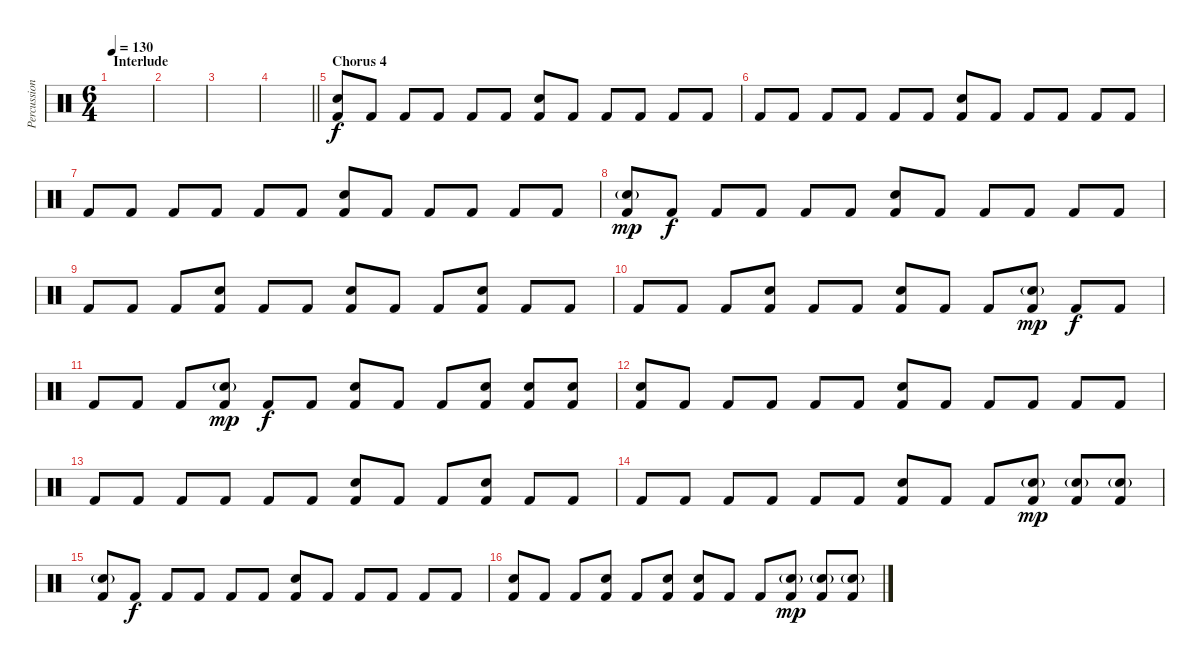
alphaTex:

\track ("Percussion" "Percussion") {instrument percussion}
\staff {score}
\articulation defaults
\ts (6 4)
\section ("" "Interlude")
\tempo 130
\clef neutral
\ks c
|
|
|
\barLineRight lightlight
|
\section ("" "Chorus 4")
("Electric Snare (hit)" "Kick (hit) 2").8{dy f volume 11} "Kick (hit) 2".8 "Kick (hit) 2".8 "Kick (hit) 2".8 "Kick (hit) 2".8 "Kick (hit) 2".8 ("Electric Snare (hit)" "Kick (hit) 2").8 "Kick (hit) 2".8 "Kick (hit) 2".8 "Kick (hit) 2".8 "Kick (hit) 2".8 "Kick (hit) 2".8 |
"Kick (hit) 2".8 "Kick (hit) 2".8 "Kick (hit) 2".8 "Kick (hit) 2".8 "Kick (hit) 2".8 "Kick (hit) 2".8 ("Electric Snare (hit)" "Kick (hit) 2").8 "Kick (hit) 2".8 "Kick (hit) 2".8 "Kick (hit) 2".8 "Kick (hit) 2".8 "Kick (hit) 2".8 |
"Kick (hit) 2".8 "Kick (hit) 2".8 "Kick (hit) 2".8 "Kick (hit) 2".8 "Kick (hit) 2".8 "Kick (hit) 2".8 ("Electric Snare (hit)" "Kick (hit) 2").8 "Kick (hit) 2".8 "Kick (hit) 2".8 "Kick (hit) 2".8 "Kick (hit) 2".8 "Kick (hit) 2".8 |
("Electric Snare (hit)"{g} "Kick (hit) 2").8{dy mp} "Kick (hit) 2".8{dy f} "Kick (hit) 2".8 "Kick (hit) 2".8 "Kick (hit) 2".8 "Kick (hit) 2".8 ("Electric Snare (hit)" "Kick (hit) 2").8 "Kick (hit) 2".8 "Kick (hit) 2".8 "Kick (hit) 2".8 "Kick (hit) 2".8 "Kick (hit) 2".8 |
"Kick (hit) 2".8 "Kick (hit) 2".8 "Kick (hit) 2".8 ("Electric Snare (hit)" "Kick (hit) 2").8 "Kick (hit) 2".8 "Kick (hit) 2".8 ("Electric Snare (hit)" "Kick (hit) 2").8 "Kick (hit) 2".8 "Kick (hit) 2".8 ("Electric Snare (hit)" "Kick (hit) 2").8 "Kick (hit) 2".8 "Kick (hit) 2".8 |
"Kick (hit) 2".8 "Kick (hit) 2".8 "Kick (hit) 2".8 ("Electric Snare (hit)" "Kick (hit) 2").8 "Kick (hit) 2".8 "Kick (hit) 2".8 ("Electric Snare (hit)" "Kick (hit) 2").8 "Kick (hit) 2".8 "Kick (hit) 2".8 ("Electric Snare (hit)"{g} "Kick (hit) 2").8{dy mp} "Kick (hit) 2".8{dy f} "Kick (hit) 2".8 |
"Kick (hit) 2".8 "Kick (hit) 2".8 "Kick (hit) 2".8 ("Electric Snare (hit)"{g} "Kick (hit) 2").8{dy mp} "Kick (hit) 2".8{dy f} "Kick (hit) 2".8 ("Electric Snare (hit)" "Kick (hit) 2").8 "Kick (hit) 2".8 "Kick (hit) 2".8 ("Electric Snare (hit)" "Kick (hit) 2").8 ("Electric Snare (hit)" "Kick (hit) 2").8 ("Electric Snare (hit)" "Kick (hit) 2").8 |
("Electric Snare (hit)" "Kick (hit) 2").8 "Kick (hit) 2".8 "Kick (hit) 2".8 "Kick (hit) 2".8 "Kick (hit) 2".8 "Kick (hit) 2".8 ("Electric Snare (hit)" "Kick (hit) 2").8 "Kick (hit) 2".8 "Kick (hit) 2".8 "Kick (hit) 2".8 "Kick (hit) 2".8 "Kick (hit) 2".8 |
"Kick (hit) 2".8 "Kick (hit) 2".8 "Kick (hit) 2".8 "Kick (hit) 2".8 "Kick (hit) 2".8 "Kick (hit) 2".8 ("Electric Snare (hit)" "Kick (hit) 2").8 "Kick (hit) 2".8 "Kick (hit) 2".8 ("Electric Snare (hit)" "Kick (hit) 2").8 "Kick (hit) 2".8 "Kick (hit) 2".8 |
"Kick (hit) 2".8 "Kick (hit) 2".8 "Kick (hit) 2".8 "Kick (hit) 2".8 "Kick (hit) 2".8 "Kick (hit) 2".8 ("Electric Snare (hit)" "Kick (hit) 2").8 "Kick (hit) 2".8 "Kick (hit) 2".8 ("Electric Snare (hit)"{g} "Kick (hit) 2").8{dy mp} ("Electric Snare (hit)"{g} "Kick (hit) 2").8 ("Electric Snare (hit)"{g} "Kick (hit) 2").8 |
("Electric Snare (hit)"{g} "Kick (hit) 2").8 "Kick (hit) 2".8{dy f} "Kick (hit) 2".8 "Kick (hit) 2".8 "Kick (hit) 2".8 "Kick (hit) 2".8 ("Electric Snare (hit)" "Kick (hit) 2").8 "Kick (hit) 2".8 "Kick (hit) 2".8 "Kick (hit) 2".8 "Kick (hit) 2".8 "Kick (hit) 2".8 |
("Electric Snare (hit)" "Kick (hit) 2").8 "Kick (hit) 2".8 "Kick (hit) 2".8 ("Electric Snare (hit)" "Kick (hit) 2").8 "Kick (hit) 2".8 ("Electric Snare (hit)" "Kick (hit) 2").8 ("Electric Snare (hit)" "Kick (hit) 2").8 "Kick (hit) 2".8 "Kick (hit) 2".8 ("Electric Snare (hit)"{g} "Kick (hit) 2").8{dy mp} ("Electric Snare (hit)"{g} "Kick (hit) 2").8 ("Electric Snare (hit)"{g} "Kick (hit) 2").8
